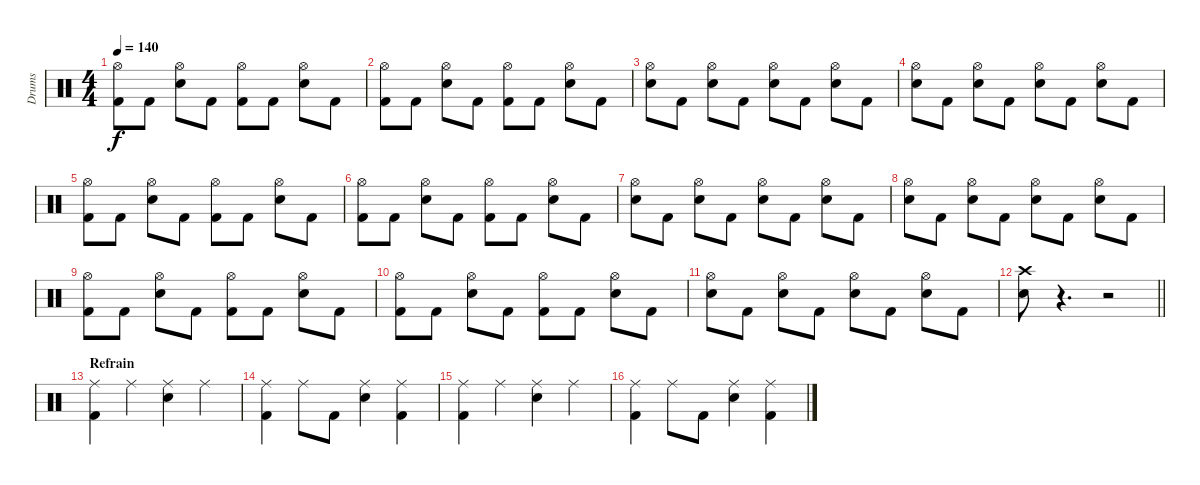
\track ("Drums" "Drums") {instrument percussion}
\staff {score}
\articulation defaults
\ts (4 4)
\tempo 140
\clef neutral
\ks c
("Kick (hit) 2" "Hi-Hat (open)").8{dy f} "Kick (hit) 2".8 ("Snare (hit) 2" "Hi-Hat (open)").8 "Kick (hit) 2".8 ("Kick (hit) 2" "Hi-Hat (open)").8 "Kick (hit) 2".8 ("Snare (hit) 2" "Hi-Hat (open)").8 "Kick (hit) 2".8 |
("Kick (hit) 2" "Hi-Hat (open)").8 "Kick (hit) 2".8 ("Snare (hit) 2" "Hi-Hat (open)").8 "Kick (hit) 2".8 ("Kick (hit) 2" "Hi-Hat (open)").8 "Kick (hit) 2".8 ("Snare (hit) 2" "Hi-Hat (open)").8 "Kick (hit) 2".8 |
("Snare (hit) 2" "Hi-Hat (open)").8 "Kick (hit) 2".8 ("Snare (hit) 2" "Hi-Hat (open)").8 "Kick (hit) 2".8 ("Snare (hit) 2" "Hi-Hat (open)").8 "Kick (hit) 2".8 ("Snare (hit) 2" "Hi-Hat (open)").8 "Kick (hit) 2".8 |
("Snare (hit) 2" "Hi-Hat (open)").8 "Kick (hit) 2".8 ("Snare (hit) 2" "Hi-Hat (open)").8 "Kick (hit) 2".8 ("Snare (hit) 2" "Hi-Hat (open)").8 "Kick (hit) 2".8 ("Snare (hit) 2" "Hi-Hat (open)").8 "Kick (hit) 2".8 |
("Kick (hit) 2" "Hi-Hat (open)").8 "Kick (hit) 2".8 ("Snare (hit) 2" "Hi-Hat (open)").8 "Kick (hit) 2".8 ("Kick (hit) 2" "Hi-Hat (open)").8 "Kick (hit) 2".8 ("Snare (hit) 2" "Hi-Hat (open)").8 "Kick (hit) 2".8 |
("Kick (hit) 2" "Hi-Hat (open)").8 "Kick (hit) 2".8 ("Snare (hit) 2" "Hi-Hat (open)").8 "Kick (hit) 2".8 ("Kick (hit) 2" "Hi-Hat (open)").8 "Kick (hit) 2".8 ("Snare (hit) 2" "Hi-Hat (open)").8 "Kick (hit) 2".8 |
("Snare (hit) 2" "Hi-Hat (open)").8 "Kick (hit) 2".8 ("Snare (hit) 2" "Hi-Hat (open)").8 "Kick (hit) 2".8 ("Snare (hit) 2" "Hi-Hat (open)").8 "Kick (hit) 2".8 ("Snare (hit) 2" "Hi-Hat (open)").8 "Kick (hit) 2".8 |
("Snare (hit) 2" "Hi-Hat (open)").8 "Kick (hit) 2".8 ("Snare (hit) 2" "Hi-Hat (open)").8 "Kick (hit) 2".8 ("Snare (hit) 2" "Hi-Hat (open)").8 "Kick (hit) 2".8 ("Snare (hit) 2" "Hi-Hat (open)").8 "Kick (hit) 2".8 |
("Kick (hit) 2" "Hi-Hat (open)").8 "Kick (hit) 2".8 ("Snare (hit) 2" "Hi-Hat (open)").8 "Kick (hit) 2".8 ("Kick (hit) 2" "Hi-Hat (open)").8 "Kick (hit) 2".8 ("Snare (hit) 2" "Hi-Hat (open)").8 "Kick (hit) 2".8 |
("Kick (hit) 2" "Hi-Hat (open)").8 "Kick (hit) 2".8 ("Snare (hit) 2" "Hi-Hat (open)").8 "Kick (hit) 2".8 ("Kick (hit) 2" "Hi-Hat (open)").8 "Kick (hit) 2".8 ("Snare (hit) 2" "Hi-Hat (open)").8 "Kick (hit) 2".8 |
("Snare (hit) 2" "Hi-Hat (open)").8 "Kick (hit) 2".8 ("Snare (hit) 2" "Hi-Hat (open)").8 "Kick (hit) 2".8 ("Snare (hit) 2" "Hi-Hat (open)").8 "Kick (hit) 2".8 ("Snare (hit) 2" "Hi-Hat (open)").8 "Kick (hit) 2".8 |
\barLineRight lightlight
("Snare (hit) 2" "Crash high (hit)").8 r.4{d} r.2 |
\section ("" "Refrain")
("Ride (middle)" "Kick (hit) 2").4 "Ride (middle)".4 ("Snare (hit) 2" "Ride (middle)").4 "Ride (middle)".4 |
("Kick (hit) 2" "Ride (middle)").4 "Ride (middle)".8 "Kick (hit) 2".8 ("Ride (middle)" "Snare (hit) 2").4 ("Ride (middle)" "Kick (hit) 2").4 |
("Ride (middle)" "Kick (hit) 2").4 "Ride (middle)".4 ("Snare (hit) 2" "Ride (middle)").4 "Ride (middle)".4 |
("Kick (hit) 2" "Ride (middle)").4 "Ride (middle)".8 "Kick (hit) 2".8 ("Ride (middle)" "Snare (hit) 2").4 ("Ride (middle)" "Kick (hit) 2").4
